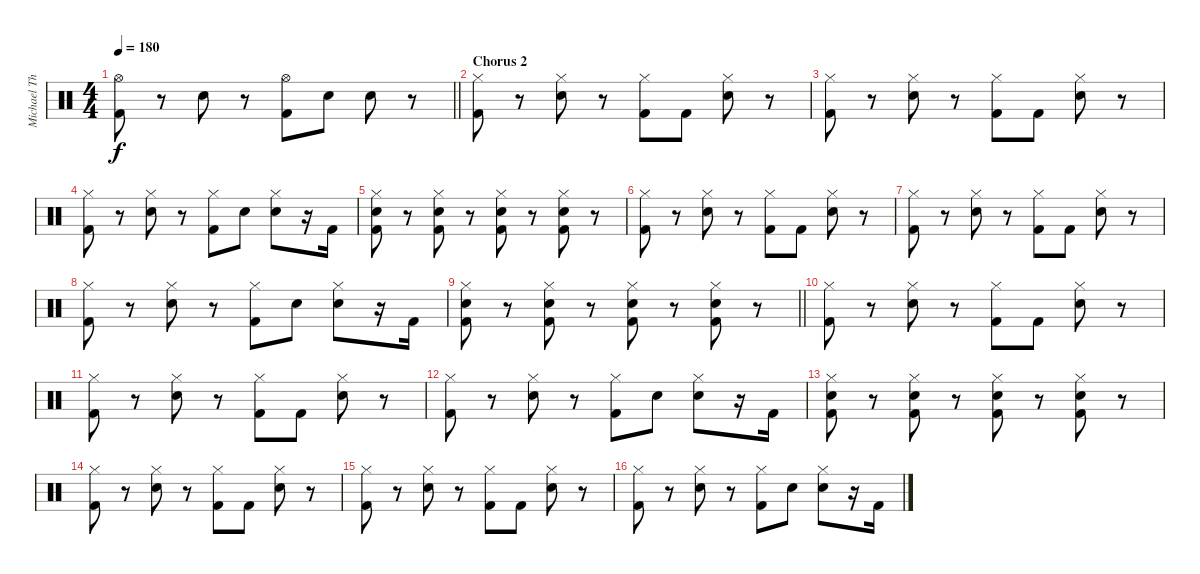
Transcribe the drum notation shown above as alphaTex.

\track ("Michael Thomas" "Michael Th") {instrument percussion}
\staff
\articulation defaults
\ts (4 4)
\tempo 180
\clef neutral
\barLineRight lightlight
\ks c
("Hi-Hat (open)" "Kick (hit) 2").8{dy f} r.8 "Electric Snare (hit)".8 r.8 ("Hi-Hat (open)" "Kick (hit) 2").8 "Electric Snare (hit)".8 "Electric Snare (hit)".8 r.8 |
\section ("" "Chorus 2")
("Hi-Hat (closed)" "Kick (hit) 2").8 r.8 ("Hi-Hat (closed)" "Electric Snare (hit)").8 r.8 ("Hi-Hat (closed)" "Kick (hit) 2").8 "Kick (hit) 2".8 ("Hi-Hat (closed)" "Electric Snare (hit)").8 r.8 |
("Hi-Hat (closed)" "Kick (hit) 2").8 r.8 ("Hi-Hat (closed)" "Electric Snare (hit)").8 r.8 ("Hi-Hat (closed)" "Kick (hit) 2").8 "Kick (hit) 2".8 ("Hi-Hat (closed)" "Electric Snare (hit)").8 r.8 |
("Hi-Hat (closed)" "Kick (hit) 2").8 r.8 ("Hi-Hat (closed)" "Electric Snare (hit)").8 r.8 ("Hi-Hat (closed)" "Kick (hit) 2").8 "Electric Snare (hit)".8 ("Hi-Hat (closed)" "Electric Snare (hit)").8 r.16 "Kick (hit) 2".16 |
("Hi-Hat (closed)" "Electric Snare (hit)" "Kick (hit) 2").8 r.8 ("Hi-Hat (closed)" "Electric Snare (hit)" "Kick (hit) 2").8 r.8 ("Hi-Hat (closed)" "Electric Snare (hit)" "Kick (hit) 2").8 r.8 ("Hi-Hat (closed)" "Electric Snare (hit)" "Kick (hit) 2").8 r.8 |
("Hi-Hat (closed)" "Kick (hit) 2").8 r.8 ("Hi-Hat (closed)" "Electric Snare (hit)").8 r.8 ("Hi-Hat (closed)" "Kick (hit) 2").8 "Kick (hit) 2".8 ("Hi-Hat (closed)" "Electric Snare (hit)").8 r.8 |
("Hi-Hat (closed)" "Kick (hit) 2").8 r.8 ("Hi-Hat (closed)" "Electric Snare (hit)").8 r.8 ("Hi-Hat (closed)" "Kick (hit) 2").8 "Kick (hit) 2".8 ("Hi-Hat (closed)" "Electric Snare (hit)").8 r.8 |
("Hi-Hat (closed)" "Kick (hit) 2").8 r.8 ("Hi-Hat (closed)" "Electric Snare (hit)").8 r.8 ("Hi-Hat (closed)" "Kick (hit) 2").8 "Electric Snare (hit)".8 ("Hi-Hat (closed)" "Electric Snare (hit)").8 r.16 "Kick (hit) 2".16 |
\barLineRight lightlight
("Hi-Hat (closed)" "Electric Snare (hit)" "Kick (hit) 2").8 r.8 ("Hi-Hat (closed)" "Electric Snare (hit)" "Kick (hit) 2").8 r.8 ("Hi-Hat (closed)" "Electric Snare (hit)" "Kick (hit) 2").8 r.8 ("Hi-Hat (closed)" "Electric Snare (hit)" "Kick (hit) 2").8 r.8 |
("Hi-Hat (closed)" "Kick (hit) 2").8 r.8 ("Hi-Hat (closed)" "Electric Snare (hit)").8 r.8 ("Hi-Hat (closed)" "Kick (hit) 2").8 "Kick (hit) 2".8 ("Hi-Hat (closed)" "Electric Snare (hit)").8 r.8 |
("Hi-Hat (closed)" "Kick (hit) 2").8 r.8 ("Hi-Hat (closed)" "Electric Snare (hit)").8 r.8 ("Hi-Hat (closed)" "Kick (hit) 2").8 "Kick (hit) 2".8 ("Hi-Hat (closed)" "Electric Snare (hit)").8 r.8 |
("Hi-Hat (closed)" "Kick (hit) 2").8 r.8 ("Hi-Hat (closed)" "Electric Snare (hit)").8 r.8 ("Hi-Hat (closed)" "Kick (hit) 2").8 "Electric Snare (hit)".8 ("Hi-Hat (closed)" "Electric Snare (hit)").8 r.16 "Kick (hit) 2".16 |
("Hi-Hat (closed)" "Electric Snare (hit)" "Kick (hit) 2").8 r.8 ("Hi-Hat (closed)" "Electric Snare (hit)" "Kick (hit) 2").8 r.8 ("Hi-Hat (closed)" "Electric Snare (hit)" "Kick (hit) 2").8 r.8 ("Hi-Hat (closed)" "Electric Snare (hit)" "Kick (hit) 2").8 r.8 |
("Hi-Hat (closed)" "Kick (hit) 2").8 r.8 ("Hi-Hat (closed)" "Electric Snare (hit)").8 r.8 ("Hi-Hat (closed)" "Kick (hit) 2").8 "Kick (hit) 2".8 ("Hi-Hat (closed)" "Electric Snare (hit)").8 r.8 |
("Hi-Hat (closed)" "Kick (hit) 2").8 r.8 ("Hi-Hat (closed)" "Electric Snare (hit)").8 r.8 ("Hi-Hat (closed)" "Kick (hit) 2").8 "Kick (hit) 2".8 ("Hi-Hat (closed)" "Electric Snare (hit)").8 r.8 |
("Hi-Hat (closed)" "Kick (hit) 2").8 r.8 ("Hi-Hat (closed)" "Electric Snare (hit)").8 r.8 ("Hi-Hat (closed)" "Kick (hit) 2").8 "Electric Snare (hit)".8 ("Hi-Hat (closed)" "Electric Snare (hit)").8 r.16 "Kick (hit) 2".16
